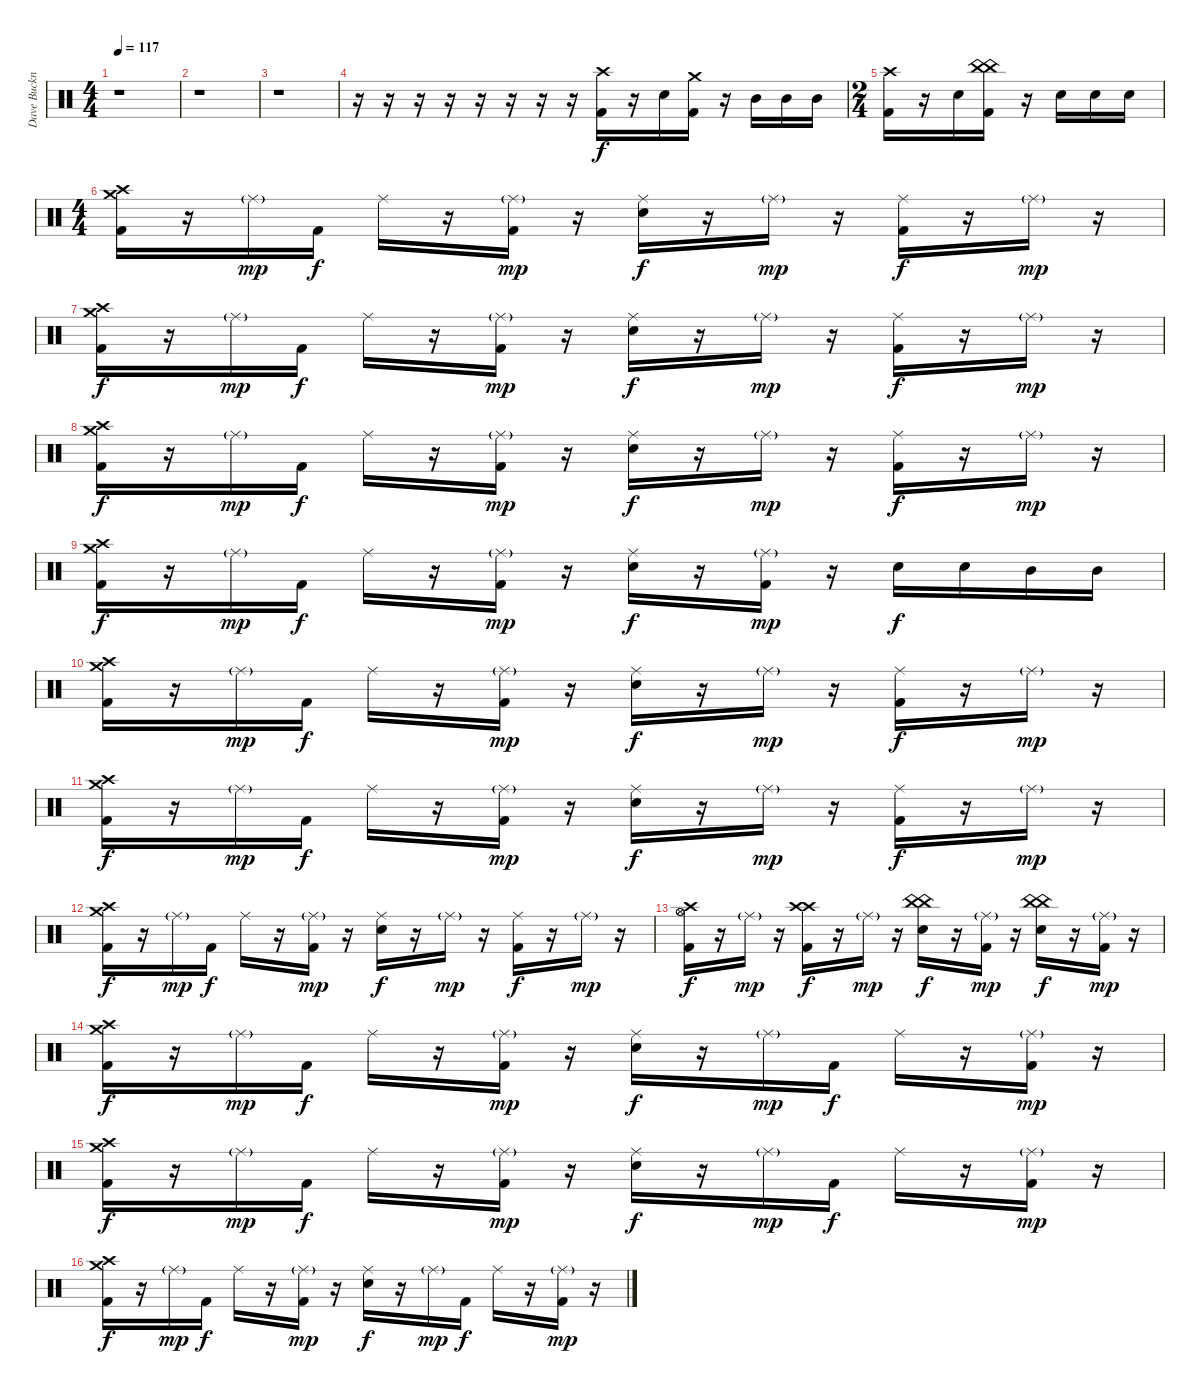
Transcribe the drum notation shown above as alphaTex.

\track ("Dave Buckner RULZ!!! (Drums)" "Dave Buckn") {instrument percussion}
\staff {score}
\articulation defaults
\ts (4 4)
\tempo 117
\clef neutral
\ks c
r.1{dy f} |
r.1 |
r.1 |
r.16 r.16 r.16 r.16 r.16 r.16 r.16 r.16 ("Crash high (hit)" "Kick (hit) 2").16{volume 12} r.16 "Electric Snare (hit)".16 ("Crash medium (hit)" "Kick (hit) 2").16 r.16 "Mid Tom (hit)".16 "Mid Tom (hit)".16 "Mid Tom (hit)".16 |
\ts (2 4)
("Crash high (hit)" "Kick (hit) 2").16 r.16 "Electric Snare (hit)".16 ("China (hit)" "China (hit)" "Kick (hit) 2").16 r.16 "Electric Snare (hit)".16 "Electric Snare (hit)".16 "Electric Snare (hit)".16 |
\ts (4 4)
("Crash high (hit)" "Crash medium (hit)" "Kick (hit) 2").16 r.16 "Ride (middle)"{g}.16{dy mp} "Kick (hit) 2".16{dy f} "Ride (middle)".16 r.16 ("Ride (middle)"{g} "Kick (hit) 2").16{dy mp} r.16 ("Ride (middle)" "Electric Snare (hit)").16{dy f} r.16 "Ride (middle)"{g}.16{dy mp} r.16 ("Ride (middle)" "Kick (hit) 2").16{dy f} r.16 "Ride (middle)"{g}.16{dy mp} r.16 |
("Crash high (hit)" "Crash medium (hit)" "Kick (hit) 2").16{dy f} r.16 "Ride (middle)"{g}.16{dy mp} "Kick (hit) 2".16{dy f} "Ride (middle)".16 r.16 ("Ride (middle)"{g} "Kick (hit) 2").16{dy mp} r.16 ("Ride (middle)" "Electric Snare (hit)").16{dy f} r.16 "Ride (middle)"{g}.16{dy mp} r.16 ("Ride (middle)" "Kick (hit) 2").16{dy f} r.16 "Ride (middle)"{g}.16{dy mp} r.16 |
("Crash high (hit)" "Crash medium (hit)" "Kick (hit) 2").16{dy f} r.16 "Ride (middle)"{g}.16{dy mp} "Kick (hit) 2".16{dy f} "Ride (middle)".16 r.16 ("Ride (middle)"{g} "Kick (hit) 2").16{dy mp} r.16 ("Ride (middle)" "Electric Snare (hit)").16{dy f} r.16 "Ride (middle)"{g}.16{dy mp} r.16 ("Ride (middle)" "Kick (hit) 2").16{dy f} r.16 "Ride (middle)"{g}.16{dy mp} r.16 |
("Crash high (hit)" "Crash medium (hit)" "Kick (hit) 2").16{dy f} r.16 "Ride (middle)"{g}.16{dy mp} "Kick (hit) 2".16{dy f} "Ride (middle)".16 r.16 ("Ride (middle)"{g} "Kick (hit) 2").16{dy mp} r.16 ("Ride (middle)" "Electric Snare (hit)").16{dy f} r.16 ("Ride (middle)"{g} "Kick (hit) 2").16{dy mp} r.16 "Electric Snare (hit)".16{dy f} "Electric Snare (hit)".16 "Mid Tom (hit)".16 "Mid Tom (hit)".16 |
("Crash high (hit)" "Crash medium (hit)" "Kick (hit) 2").16 r.16 "Ride (middle)"{g}.16{dy mp} "Kick (hit) 2".16{dy f} "Ride (middle)".16 r.16 ("Ride (middle)"{g} "Kick (hit) 2").16{dy mp} r.16 ("Ride (middle)" "Electric Snare (hit)").16{dy f} r.16 "Ride (middle)"{g}.16{dy mp} r.16 ("Ride (middle)" "Kick (hit) 2").16{dy f} r.16 "Ride (middle)"{g}.16{dy mp} r.16 |
("Crash high (hit)" "Crash medium (hit)" "Kick (hit) 2").16{dy f} r.16 "Ride (middle)"{g}.16{dy mp} "Kick (hit) 2".16{dy f} "Ride (middle)".16 r.16 ("Ride (middle)"{g} "Kick (hit) 2").16{dy mp} r.16 ("Ride (middle)" "Electric Snare (hit)").16{dy f} r.16 "Ride (middle)"{g}.16{dy mp} r.16 ("Ride (middle)" "Kick (hit) 2").16{dy f} r.16 "Ride (middle)"{g}.16{dy mp} r.16 |
("Crash high (hit)" "Crash medium (hit)" "Kick (hit) 2").16{dy f} r.16 "Ride (middle)"{g}.16{dy mp} "Kick (hit) 2".16{dy f} "Ride (middle)".16 r.16 ("Ride (middle)"{g} "Kick (hit) 2").16{dy mp} r.16 ("Ride (middle)" "Electric Snare (hit)").16{dy f} r.16 "Ride (middle)"{g}.16{dy mp} r.16 ("Ride (middle)" "Kick (hit) 2").16{dy f} r.16 "Ride (middle)"{g}.16{dy mp} r.16 |
("Crash high (hit)" "Hi-Hat (open)" "Hi-Hat (open)" "Kick (hit) 2").16{dy f} r.16 "Ride (middle)"{g}.16{dy mp} r.16 ("Crash high (hit)" "Crash high (hit)" "Kick (hit) 2").16{dy f} r.16 "Ride (middle)"{g}.16{dy mp} r.16 ("China (hit)" "China (hit)" "Electric Snare (hit)").16{dy f} r.16 ("Ride (middle)"{g} "Kick (hit) 2").16{dy mp} r.16 ("China (hit)" "China (hit)" "Electric Snare (hit)").16{dy f} r.16 ("Ride (middle)"{g} "Kick (hit) 2").16{dy mp} r.16 |
("Crash high (hit)" "Crash medium (hit)" "Kick (hit) 2").16{dy f} r.16 "Ride (middle)"{g}.16{dy mp} "Kick (hit) 2".16{dy f} "Ride (middle)".16 r.16 ("Ride (middle)"{g} "Kick (hit) 2").16{dy mp} r.16 ("Ride (middle)" "Electric Snare (hit)").16{dy f} r.16 "Ride (middle)"{g}.16{dy mp} "Kick (hit) 2".16{dy f} "Ride (middle)".16 r.16 ("Ride (middle)"{g} "Kick (hit) 2").16{dy mp} r.16 |
("Crash high (hit)" "Crash medium (hit)" "Kick (hit) 2").16{dy f} r.16 "Ride (middle)"{g}.16{dy mp} "Kick (hit) 2".16{dy f} "Ride (middle)".16 r.16 ("Ride (middle)"{g} "Kick (hit) 2").16{dy mp} r.16 ("Ride (middle)" "Electric Snare (hit)").16{dy f} r.16 "Ride (middle)"{g}.16{dy mp} "Kick (hit) 2".16{dy f} "Ride (middle)".16 r.16 ("Ride (middle)"{g} "Kick (hit) 2").16{dy mp} r.16 |
("Crash high (hit)" "Crash medium (hit)" "Kick (hit) 2").16{dy f} r.16 "Ride (middle)"{g}.16{dy mp} "Kick (hit) 2".16{dy f} "Ride (middle)".16 r.16 ("Ride (middle)"{g} "Kick (hit) 2").16{dy mp} r.16 ("Ride (middle)" "Electric Snare (hit)").16{dy f} r.16 "Ride (middle)"{g}.16{dy mp} "Kick (hit) 2".16{dy f} "Ride (middle)".16 r.16 ("Ride (middle)"{g} "Kick (hit) 2").16{dy mp} r.16
